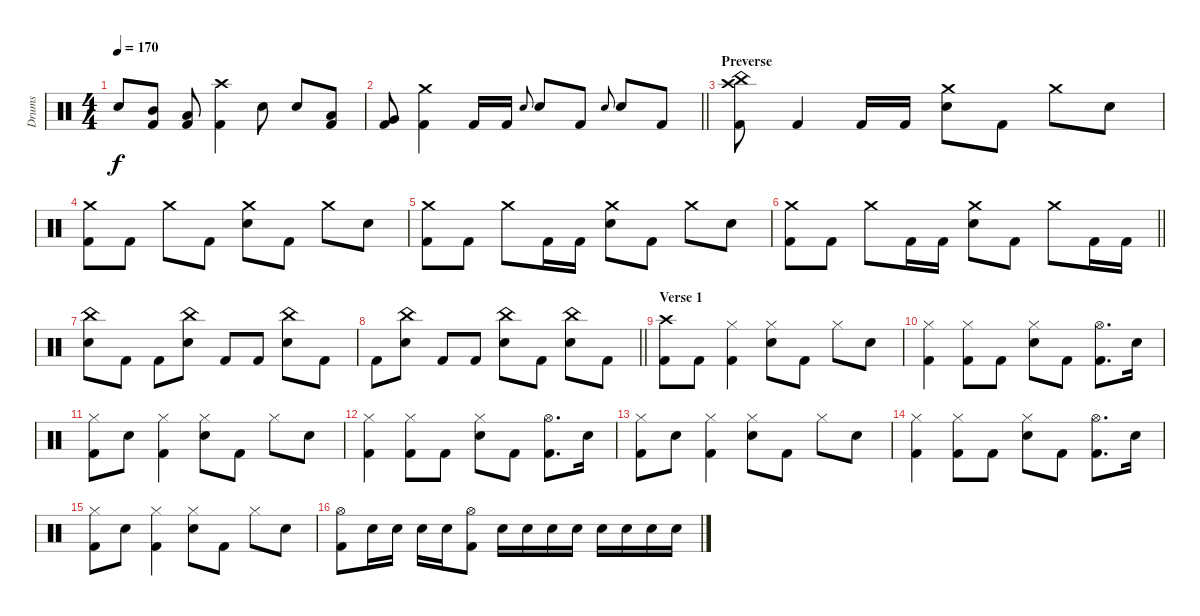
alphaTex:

\track ("Drums" "Drums") {instrument percussion}
\staff {score}
\articulation defaults
\ts (4 4)
\section ("" "")
\tempo 170
\clef neutral
\ks c "Electric Snare (hit)".8{dy f}
("Mid Tom (hit)" "Kick (hit) 2").8 ("Low Tom (hit)" "Kick (hit) 2").8 ("Crash high (hit)" "Kick (hit) 2").4 "Electric Snare (hit)".8 "Electric Snare (hit)".8 ("Low Tom (hit)" "Kick (hit) 2").8 |
\barLineRight lightlight
("Very Low Tom (hit)" "Kick (hit) 2").8 ("Crash medium (hit)" "Kick (hit) 2").4 "Kick (hit) 2".16 "Kick (hit) 2".16 "Electric Snare (hit)".8{gr onbeat} "Electric Snare (hit)".8 "Kick (hit) 2".8 "Electric Snare (hit)".8{gr onbeat} "Electric Snare (hit)".8 "Kick (hit) 2".8 |
\section ("" "Preverse")
("Crash high (hit)" "China (hit)" "Kick (hit) 2").8 "Kick (hit) 2".4 "Kick (hit) 2".16 "Kick (hit) 2".16 ("Crash medium (hit)" "Electric Snare (hit)").8 "Kick (hit) 2".8 "Crash medium (hit)".8 "Electric Snare (hit)".8 |
("Crash medium (hit)" "Kick (hit) 2").8 "Kick (hit) 2".8 "Crash medium (hit)".8 "Kick (hit) 2".8 ("Crash medium (hit)" "Electric Snare (hit)").8 "Kick (hit) 2".8 "Crash medium (hit)".8 "Electric Snare (hit)".8 |
("Crash medium (hit)" "Kick (hit) 2").8 "Kick (hit) 2".8 "Crash medium (hit)".8 "Kick (hit) 2".16 "Kick (hit) 2".16 ("Crash medium (hit)" "Electric Snare (hit)").8 "Kick (hit) 2".8 "Crash medium (hit)".8 "Electric Snare (hit)".8 |
\barLineRight lightlight
("Crash medium (hit)" "Kick (hit) 2").8 "Kick (hit) 2".8 "Crash medium (hit)".8 "Kick (hit) 2".16 "Kick (hit) 2".16 ("Crash medium (hit)" "Electric Snare (hit)").8 "Kick (hit) 2".8 "Crash medium (hit)".8 "Kick (hit) 2".16 "Kick (hit) 2".16 |
\section ("" "")
("China (hit)" "Electric Snare (hit)").8 "Kick (hit) 2".8 "Kick (hit) 2".8 ("China (hit)" "Electric Snare (hit)").8 "Kick (hit) 2".8 "Kick (hit) 2".8 ("China (hit)" "Electric Snare (hit)").8 "Kick (hit) 2".8 |
\barLineRight lightlight "Kick (hit) 2".8
("China (hit)" "Electric Snare (hit)").8 "Kick (hit) 2".8 "Kick (hit) 2".8 ("China (hit)" "Electric Snare (hit)").8 "Kick (hit) 2".8 ("China (hit)" "Electric Snare (hit)").8 "Kick (hit) 2".8 |
\section ("" "Verse 1")
("Crash high (hit)" "Kick (hit) 2").8 "Kick (hit) 2".8 ("Hi-Hat (closed)" "Kick (hit) 2").4 ("Hi-Hat (closed)" "Electric Snare (hit)").8 "Kick (hit) 2".8 "Hi-Hat (closed)".8 "Electric Snare (hit)".8 |
("Hi-Hat (closed)" "Kick (hit) 2").4 ("Hi-Hat (closed)" "Kick (hit) 2").8 "Kick (hit) 2".8 ("Hi-Hat (closed)" "Electric Snare (hit)").8 "Kick (hit) 2".8 ("Hi-Hat (open)" "Kick (hit) 2").8{d} "Electric Snare (hit)".16 |
("Hi-Hat (closed)" "Kick (hit) 2").8 "Electric Snare (hit)".8 ("Hi-Hat (closed)" "Kick (hit) 2").4 ("Hi-Hat (closed)" "Electric Snare (hit)").8 "Kick (hit) 2".8 "Hi-Hat (closed)".8 "Electric Snare (hit)".8 |
("Hi-Hat (closed)" "Kick (hit) 2").4 ("Hi-Hat (closed)" "Kick (hit) 2").8 "Kick (hit) 2".8 ("Hi-Hat (closed)" "Electric Snare (hit)").8 "Kick (hit) 2".8 ("Hi-Hat (open)" "Kick (hit) 2").8{d} "Electric Snare (hit)".16 |
("Hi-Hat (closed)" "Kick (hit) 2").8 "Electric Snare (hit)".8 ("Hi-Hat (closed)" "Kick (hit) 2").4 ("Hi-Hat (closed)" "Electric Snare (hit)").8 "Kick (hit) 2".8 "Hi-Hat (closed)".8 "Electric Snare (hit)".8 |
("Hi-Hat (closed)" "Kick (hit) 2").4 ("Hi-Hat (closed)" "Kick (hit) 2").8 "Kick (hit) 2".8 ("Hi-Hat (closed)" "Electric Snare (hit)").8 "Kick (hit) 2".8 ("Hi-Hat (open)" "Kick (hit) 2").8{d} "Electric Snare (hit)".16 |
("Hi-Hat (closed)" "Kick (hit) 2").8 "Electric Snare (hit)".8 ("Hi-Hat (closed)" "Kick (hit) 2").4 ("Hi-Hat (closed)" "Electric Snare (hit)").8 "Kick (hit) 2".8 "Hi-Hat (closed)".8 "Electric Snare (hit)".8 |
("Hi-Hat (open)" "Kick (hit) 2").8 "Electric Snare (hit)".16 "Electric Snare (hit)".16 "Electric Snare (hit)".16 "Electric Snare (hit)".16 ("Hi-Hat (open)" "Kick (hit) 2").8 "Electric Snare (hit)".16 "Electric Snare (hit)".16 "Electric Snare (hit)".16 "Electric Snare (hit)".16 "Electric Snare (hit)".16 "Electric Snare (hit)".16 "Electric Snare (hit)".16 "Electric Snare (hit)".16
